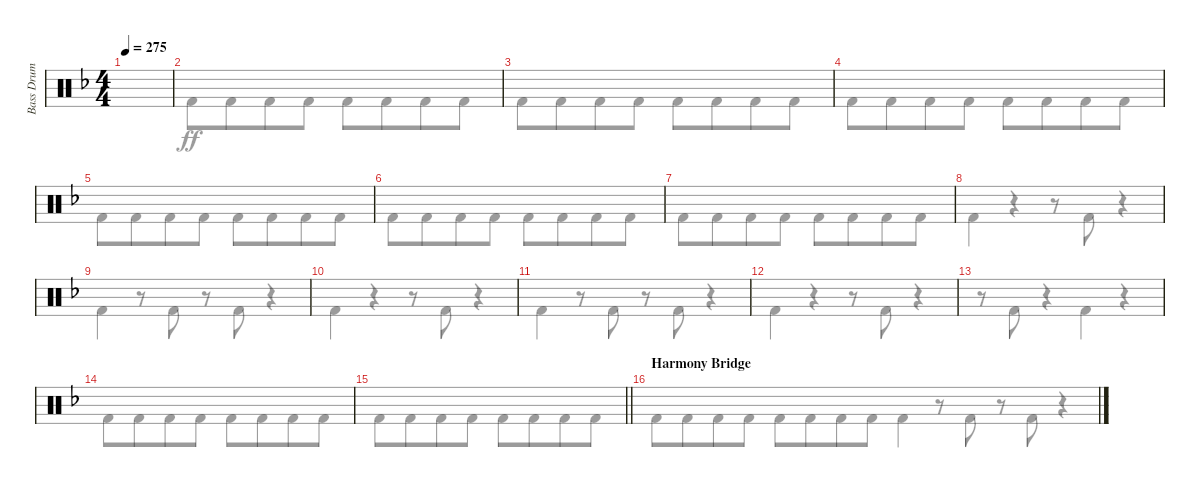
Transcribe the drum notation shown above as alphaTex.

\track ("Bass Drum" "Bass Drum") {instrument percussion}
\staff {score}
\articulation defaults
\voice
\ts (4 4)
\tempo 275
\clef neutral
\ks dminor
|
|
|
|
|
|
|
|
|
|
|
|
|
|
\barLineRight lightlight
|
\section ("" "Harmony Bridge")
\voice
\clef neutral
\ks dminor "Kick (hit) 2".8{dy ff} "Kick (hit) 2".8{beam merge} "Kick (hit) 2".8 "Kick (hit) 2".8 "Kick (hit) 2".8 "Kick (hit) 2".8{beam merge} "Kick (hit) 2".8 "Kick (hit) 2".8
|
"Kick (hit) 2".8 "Kick (hit) 2".8{beam merge} "Kick (hit) 2".8 "Kick (hit) 2".8 "Kick (hit) 2".8 "Kick (hit) 2".8{beam merge} "Kick (hit) 2".8 "Kick (hit) 2".8 |
"Kick (hit) 2".8 "Kick (hit) 2".8{beam merge} "Kick (hit) 2".8 "Kick (hit) 2".8 "Kick (hit) 2".8 "Kick (hit) 2".8{beam merge} "Kick (hit) 2".8 "Kick (hit) 2".8 |
"Kick (hit) 2".8 "Kick (hit) 2".8{beam merge} "Kick (hit) 2".8 "Kick (hit) 2".8 "Kick (hit) 2".8 "Kick (hit) 2".8{beam merge} "Kick (hit) 2".8 "Kick (hit) 2".8 |
"Kick (hit) 2".8 "Kick (hit) 2".8{beam merge} "Kick (hit) 2".8 "Kick (hit) 2".8 "Kick (hit) 2".8 "Kick (hit) 2".8{beam merge} "Kick (hit) 2".8 "Kick (hit) 2".8 |
"Kick (hit) 2".8 "Kick (hit) 2".8{beam merge} "Kick (hit) 2".8 "Kick (hit) 2".8 "Kick (hit) 2".8 "Kick (hit) 2".8{beam merge} "Kick (hit) 2".8 "Kick (hit) 2".8 |
"Kick (hit) 2".8 "Kick (hit) 2".8{beam merge} "Kick (hit) 2".8 "Kick (hit) 2".8 "Kick (hit) 2".8 "Kick (hit) 2".8{beam merge} "Kick (hit) 2".8 "Kick (hit) 2".8 |
"Kick (hit) 2".4 r.4 r.8 "Kick (hit) 2".8 r.4 |
"Kick (hit) 2".4 r.8 "Kick (hit) 2".8 r.8 "Kick (hit) 2".8 r.4 |
"Kick (hit) 2".4 r.4 r.8 "Kick (hit) 2".8 r.4 |
"Kick (hit) 2".4 r.8 "Kick (hit) 2".8 r.8 "Kick (hit) 2".8 r.4 |
"Kick (hit) 2".4 r.4 r.8 "Kick (hit) 2".8 r.4 |
r.8 "Kick (hit) 2".8 r.4 "Kick (hit) 2".4 r.4 |
"Kick (hit) 2".8 "Kick (hit) 2".8{beam merge} "Kick (hit) 2".8 "Kick (hit) 2".8 "Kick (hit) 2".8 "Kick (hit) 2".8{beam merge} "Kick (hit) 2".8 "Kick (hit) 2".8 |
\barLineRight lightlight "Kick (hit) 2".8 "Kick (hit) 2".8{beam merge} "Kick (hit) 2".8 "Kick (hit) 2".8 "Kick (hit) 2".8 "Kick (hit) 2".8{beam merge} "Kick (hit) 2".8 "Kick (hit) 2".8
|
"Kick (hit) 2".4 r.8 "Kick (hit) 2".8 r.8 "Kick (hit) 2".8 r.4
